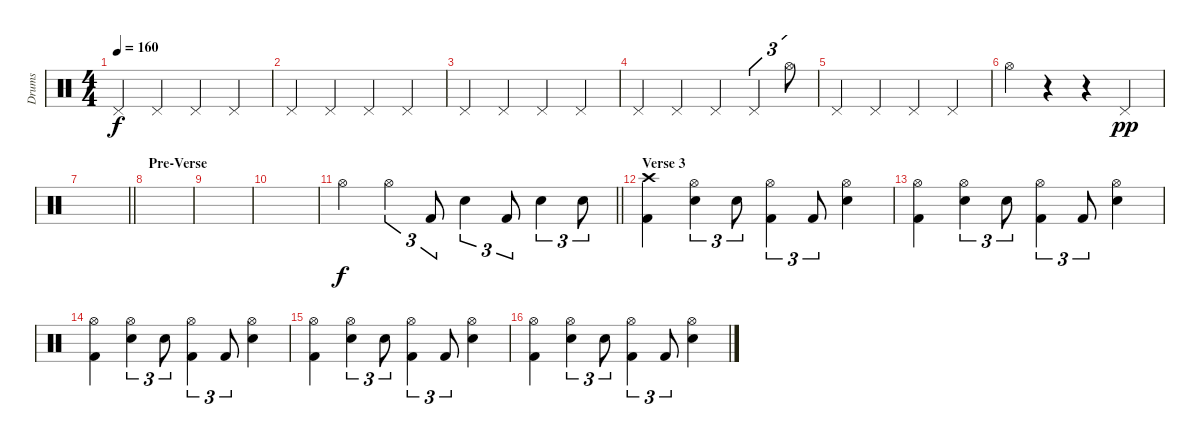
\track ("Drums" "Drums") {instrument percussion}
\staff {score}
\articulation defaults
\ts (4 4)
\tempo 160
\clef neutral
\ks c "Pedal Hi-Hat (hit)".4{dy f} "Pedal Hi-Hat (hit)".4 "Pedal Hi-Hat (hit)".4 "Pedal Hi-Hat (hit)".4
|
"Pedal Hi-Hat (hit)".4 "Pedal Hi-Hat (hit)".4 "Pedal Hi-Hat (hit)".4 "Pedal Hi-Hat (hit)".4 |
"Pedal Hi-Hat (hit)".4 "Pedal Hi-Hat (hit)".4 "Pedal Hi-Hat (hit)".4 "Pedal Hi-Hat (hit)".4 |
"Pedal Hi-Hat (hit)".4 "Pedal Hi-Hat (hit)".4 "Pedal Hi-Hat (hit)".4 "Pedal Hi-Hat (hit)".4{tu (3 2)} "Hi-Hat (open)".8{tu (3 2)} |
"Pedal Hi-Hat (hit)".4 "Pedal Hi-Hat (hit)".4 "Pedal Hi-Hat (hit)".4 "Pedal Hi-Hat (hit)".4 |
"Hi-Hat (open)".4 r.4 r.4 "Pedal Hi-Hat (hit)".4{dy pp} |
\barLineRight lightlight
|
\section ("" "Pre-Verse")
|
|
|
\barLineRight lightlight "Hi-Hat (open)".4{dy f} "Hi-Hat (open)".4{tu (3 2)} "Kick (hit) 2".8{tu (3 2)} "Snare (hit) 2".4{tu (3 2)} "Kick (hit) 2".8{tu (3 2)} "Snare (hit) 2".4{tu (3 2)} "Snare (hit) 2".8{tu (3 2)}
|
\section ("" "Verse 3")
("Crash high (hit)" "Kick (hit) 2").4 ("Hi-Hat (open)" "Snare (hit) 2").4{tu (3 2)} "Snare (hit) 2".8{tu (3 2)} ("Hi-Hat (open)" "Kick (hit) 2").4{tu (3 2)} "Kick (hit) 2".8{tu (3 2)} ("Hi-Hat (open)" "Snare (hit) 2").4 |
("Hi-Hat (open)" "Kick (hit) 2").4 ("Hi-Hat (open)" "Snare (hit) 2").4{tu (3 2)} "Snare (hit) 2".8{tu (3 2)} ("Hi-Hat (open)" "Kick (hit) 2").4{tu (3 2)} "Kick (hit) 2".8{tu (3 2)} ("Hi-Hat (open)" "Snare (hit) 2").4 |
("Hi-Hat (open)" "Kick (hit) 2").4 ("Hi-Hat (open)" "Snare (hit) 2").4{tu (3 2)} "Snare (hit) 2".8{tu (3 2)} ("Hi-Hat (open)" "Kick (hit) 2").4{tu (3 2)} "Kick (hit) 2".8{tu (3 2)} ("Hi-Hat (open)" "Snare (hit) 2").4 |
("Hi-Hat (open)" "Kick (hit) 2").4 ("Hi-Hat (open)" "Snare (hit) 2").4{tu (3 2)} "Snare (hit) 2".8{tu (3 2)} ("Hi-Hat (open)" "Kick (hit) 2").4{tu (3 2)} "Kick (hit) 2".8{tu (3 2)} ("Hi-Hat (open)" "Snare (hit) 2").4 |
("Hi-Hat (open)" "Kick (hit) 2").4 ("Hi-Hat (open)" "Snare (hit) 2").4{tu (3 2)} "Snare (hit) 2".8{tu (3 2)} ("Hi-Hat (open)" "Kick (hit) 2").4{tu (3 2)} "Kick (hit) 2".8{tu (3 2)} ("Hi-Hat (open)" "Snare (hit) 2").4
